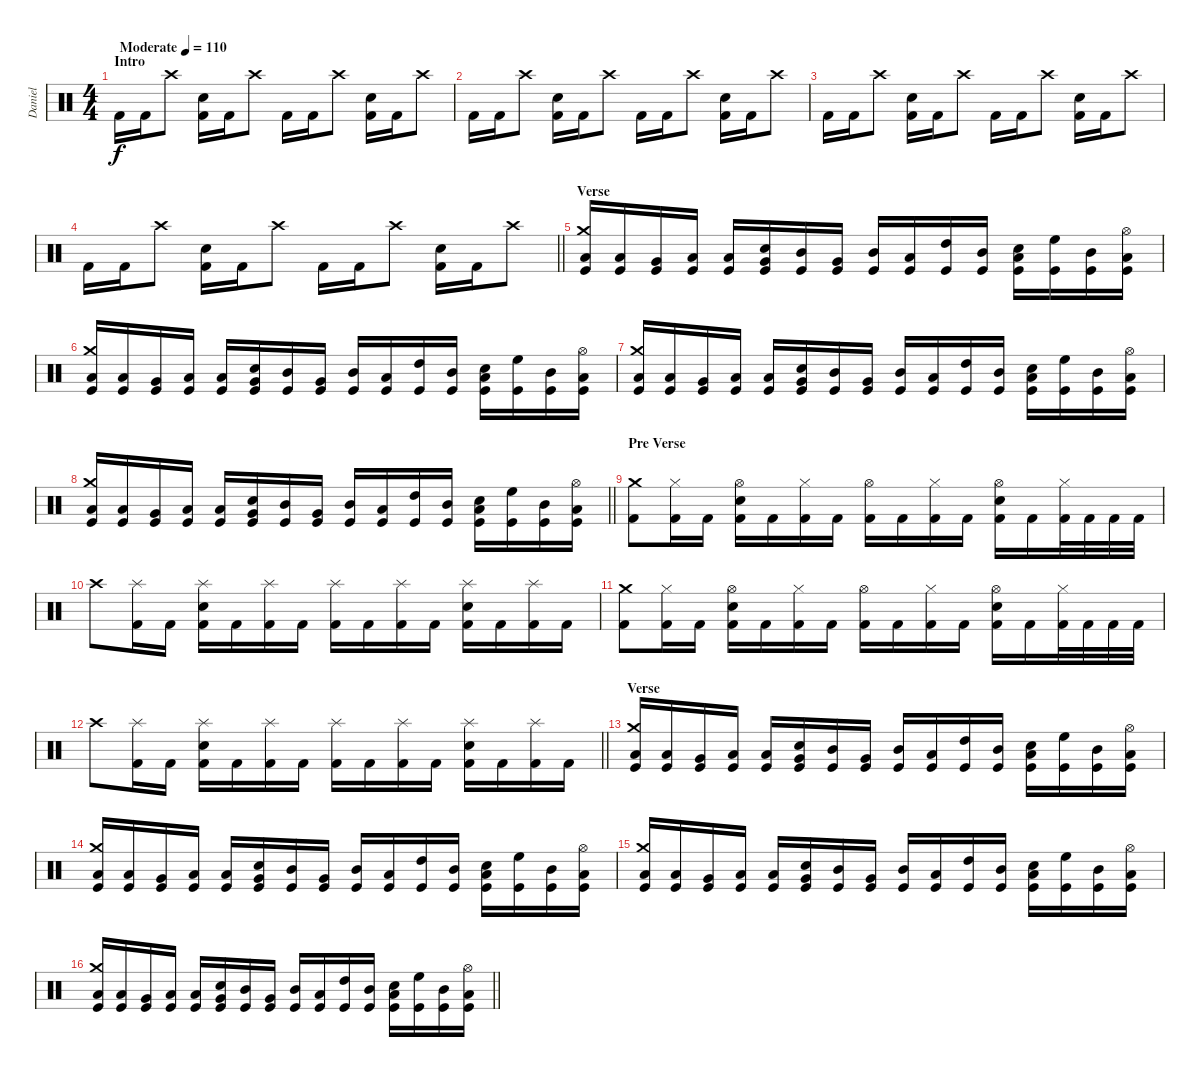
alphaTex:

\track ("Daniel" "Daniel") {instrument percussion}
\staff {score}
\articulation defaults
\ts (4 4)
\section ("" "Intro")
\tempo (110 "Moderate")
\clef neutral
\ks c "Kick (hit) 2".16{dy f} "Kick (hit) 2".16 "Crash high (hit)".8
("Snare (hit) 2" "Kick (hit) 2").16 "Kick (hit) 2".16 "Crash high (hit)".8 "Kick (hit) 2".16 "Kick (hit) 2".16 "Crash high (hit)".8 ("Snare (hit) 2" "Kick (hit) 2").16 "Kick (hit) 2".16 "Crash high (hit)".8 |
"Kick (hit) 2".16 "Kick (hit) 2".16 "Crash high (hit)".8 ("Snare (hit) 2" "Kick (hit) 2").16 "Kick (hit) 2".16 "Crash high (hit)".8 "Kick (hit) 2".16 "Kick (hit) 2".16 "Crash high (hit)".8 ("Snare (hit) 2" "Kick (hit) 2").16 "Kick (hit) 2".16 "Crash high (hit)".8 |
"Kick (hit) 2".16 "Kick (hit) 2".16 "Crash high (hit)".8 ("Snare (hit) 2" "Kick (hit) 2").16 "Kick (hit) 2".16 "Crash high (hit)".8 "Kick (hit) 2".16 "Kick (hit) 2".16 "Crash high (hit)".8 ("Snare (hit) 2" "Kick (hit) 2").16 "Kick (hit) 2".16 "Crash high (hit)".8 |
\barLineRight lightlight "Kick (hit) 2".16 "Kick (hit) 2".16 "Crash high (hit)".8
("Snare (hit) 2" "Kick (hit) 2").16 "Kick (hit) 2".16 "Crash high (hit)".8 "Kick (hit) 2".16 "Kick (hit) 2".16 "Crash high (hit)".8 ("Snare (hit) 2" "Kick (hit) 2").16 "Kick (hit) 2".16 "Crash high (hit)".8 |
\section ("" "Verse")
("Kick (hit)" "Crash medium (hit)" "Low Tom (hit)").16 ("Kick (hit)" "Low Tom (hit)").16 ("Kick (hit)" "Very Low Tom (hit)").16 ("Kick (hit)" "Low Floor Tom (hit)").16 ("Kick (hit)" "Low Tom (hit)").16 ("Kick (hit)" "Snare (hit) 2" "Very Low Tom (hit)").16 ("Kick (hit)" "Mid Tom (hit)").16 ("Kick (hit)" "Very Low Tom (hit)").16 ("Kick (hit)" "Mid Tom (hit)").16 ("Kick (hit)" "Low Tom (hit)").16 ("Kick (hit)" "High Tom (hit)").16 ("Kick (hit)" "Mid Tom (hit)").16 ("Kick (hit)" "Snare (hit) 2" "Low Tom (hit)").16 ("Kick (hit)" "High Floor Tom (hit)").16 ("Kick (hit)" "Mid Tom (hit)").16 ("Kick (hit)" "Hi-Hat (open)" "Low Tom (hit)").16 |
("Kick (hit)" "Crash medium (hit)" "Low Tom (hit)").16 ("Kick (hit)" "Low Tom (hit)").16 ("Kick (hit)" "Very Low Tom (hit)").16 ("Kick (hit)" "Low Floor Tom (hit)").16 ("Kick (hit)" "Low Tom (hit)").16 ("Kick (hit)" "Snare (hit) 2" "Very Low Tom (hit)").16 ("Kick (hit)" "Mid Tom (hit)").16 ("Kick (hit)" "Very Low Tom (hit)").16 ("Kick (hit)" "Mid Tom (hit)").16 ("Kick (hit)" "Low Tom (hit)").16 ("Kick (hit)" "High Tom (hit)").16 ("Kick (hit)" "Mid Tom (hit)").16 ("Kick (hit)" "Snare (hit) 2" "Low Tom (hit)").16 ("Kick (hit)" "High Floor Tom (hit)").16 ("Kick (hit)" "Mid Tom (hit)").16 ("Kick (hit)" "Hi-Hat (open)" "Low Tom (hit)").16 |
("Kick (hit)" "Crash medium (hit)" "Low Tom (hit)").16 ("Kick (hit)" "Low Tom (hit)").16 ("Kick (hit)" "Very Low Tom (hit)").16 ("Kick (hit)" "Low Floor Tom (hit)").16 ("Kick (hit)" "Low Tom (hit)").16 ("Kick (hit)" "Snare (hit) 2" "Very Low Tom (hit)").16 ("Kick (hit)" "Mid Tom (hit)").16 ("Kick (hit)" "Very Low Tom (hit)").16 ("Kick (hit)" "Mid Tom (hit)").16 ("Kick (hit)" "Low Tom (hit)").16 ("Kick (hit)" "High Tom (hit)").16 ("Kick (hit)" "Mid Tom (hit)").16 ("Kick (hit)" "Snare (hit) 2" "Low Tom (hit)").16 ("Kick (hit)" "High Floor Tom (hit)").16 ("Kick (hit)" "Mid Tom (hit)").16 ("Kick (hit)" "Hi-Hat (open)" "Low Tom (hit)").16 |
\barLineRight lightlight
("Kick (hit)" "Crash medium (hit)" "Low Tom (hit)").16 ("Kick (hit)" "Low Tom (hit)").16 ("Kick (hit)" "Very Low Tom (hit)").16 ("Kick (hit)" "Low Floor Tom (hit)").16 ("Kick (hit)" "Low Tom (hit)").16 ("Kick (hit)" "Snare (hit) 2" "Very Low Tom (hit)").16 ("Kick (hit)" "Mid Tom (hit)").16 ("Kick (hit)" "Very Low Tom (hit)").16 ("Kick (hit)" "Mid Tom (hit)").16 ("Kick (hit)" "Low Tom (hit)").16 ("Kick (hit)" "High Tom (hit)").16 ("Kick (hit)" "Mid Tom (hit)").16 ("Kick (hit)" "Snare (hit) 2" "Low Tom (hit)").16 ("Kick (hit)" "High Floor Tom (hit)").16 ("Kick (hit)" "Mid Tom (hit)").16 ("Kick (hit)" "Hi-Hat (open)" "Low Tom (hit)").16 |
\section ("" "Pre Verse")
("Crash medium (hit)" "Kick (hit) 2").8 ("Hi-Hat (closed)" "Kick (hit) 2").16 "Kick (hit) 2".16 ("Hi-Hat (open)" "Snare (hit) 2" "Kick (hit) 2").16 "Kick (hit) 2".16 ("Hi-Hat (closed)" "Kick (hit) 2").16 "Kick (hit) 2".16 ("Hi-Hat (open)" "Kick (hit) 2").16 "Kick (hit) 2".16 ("Hi-Hat (closed)" "Kick (hit) 2").16 "Kick (hit) 2".16 ("Hi-Hat (open)" "Snare (hit) 2" "Kick (hit) 2").16 "Kick (hit) 2".16 ("Hi-Hat (closed)" "Kick (hit) 2").32 "Kick (hit) 2".32 "Kick (hit) 2".32 "Kick (hit) 2".32 |
"Crash high (hit)".8 ("Splash (hit)" "Kick (hit) 2").16 "Kick (hit) 2".16 ("Splash (hit)" "Snare (hit) 2" "Kick (hit) 2").16 "Kick (hit) 2".16 ("Splash (hit)" "Kick (hit) 2").16 "Kick (hit) 2".16 ("Splash (hit)" "Kick (hit) 2").16 "Kick (hit) 2".16 ("Splash (hit)" "Kick (hit) 2").16 "Kick (hit) 2".16 ("Splash (hit)" "Snare (hit) 2" "Kick (hit) 2").16 "Kick (hit) 2".16 ("Splash (hit)" "Kick (hit) 2").16 "Kick (hit) 2".16 |
("Crash medium (hit)" "Kick (hit) 2").8 ("Hi-Hat (closed)" "Kick (hit) 2").16 "Kick (hit) 2".16 ("Hi-Hat (open)" "Snare (hit) 2" "Kick (hit) 2").16 "Kick (hit) 2".16 ("Hi-Hat (closed)" "Kick (hit) 2").16 "Kick (hit) 2".16 ("Hi-Hat (open)" "Kick (hit) 2").16 "Kick (hit) 2".16 ("Hi-Hat (closed)" "Kick (hit) 2").16 "Kick (hit) 2".16 ("Hi-Hat (open)" "Snare (hit) 2" "Kick (hit) 2").16 "Kick (hit) 2".16 ("Hi-Hat (closed)" "Kick (hit) 2").32 "Kick (hit) 2".32 "Kick (hit) 2".32 "Kick (hit) 2".32 |
\barLineRight lightlight "Crash high (hit)".8
("Splash (hit)" "Kick (hit) 2").16 "Kick (hit) 2".16 ("Splash (hit)" "Snare (hit) 2" "Kick (hit) 2").16 "Kick (hit) 2".16 ("Splash (hit)" "Kick (hit) 2").16 "Kick (hit) 2".16 ("Splash (hit)" "Kick (hit) 2").16 "Kick (hit) 2".16 ("Splash (hit)" "Kick (hit) 2").16 "Kick (hit) 2".16 ("Splash (hit)" "Snare (hit) 2" "Kick (hit) 2").16 "Kick (hit) 2".16 ("Splash (hit)" "Kick (hit) 2").16 "Kick (hit) 2".16 |
\section ("" "Verse")
("Kick (hit)" "Crash medium (hit)" "Low Tom (hit)").16 ("Kick (hit)" "Low Tom (hit)").16 ("Kick (hit)" "Very Low Tom (hit)").16 ("Kick (hit)" "Low Floor Tom (hit)").16 ("Kick (hit)" "Low Tom (hit)").16 ("Kick (hit)" "Snare (hit) 2" "Very Low Tom (hit)").16 ("Kick (hit)" "Mid Tom (hit)").16 ("Kick (hit)" "Very Low Tom (hit)").16 ("Kick (hit)" "Mid Tom (hit)").16 ("Kick (hit)" "Low Tom (hit)").16 ("Kick (hit)" "High Tom (hit)").16 ("Kick (hit)" "Mid Tom (hit)").16 ("Kick (hit)" "Snare (hit) 2" "Low Tom (hit)").16 ("Kick (hit)" "High Floor Tom (hit)").16 ("Kick (hit)" "Mid Tom (hit)").16 ("Kick (hit)" "Hi-Hat (open)" "Low Tom (hit)").16 |
("Kick (hit)" "Crash medium (hit)" "Low Tom (hit)").16 ("Kick (hit)" "Low Tom (hit)").16 ("Kick (hit)" "Very Low Tom (hit)").16 ("Kick (hit)" "Low Floor Tom (hit)").16 ("Kick (hit)" "Low Tom (hit)").16 ("Kick (hit)" "Snare (hit) 2" "Very Low Tom (hit)").16 ("Kick (hit)" "Mid Tom (hit)").16 ("Kick (hit)" "Very Low Tom (hit)").16 ("Kick (hit)" "Mid Tom (hit)").16 ("Kick (hit)" "Low Tom (hit)").16 ("Kick (hit)" "High Tom (hit)").16 ("Kick (hit)" "Mid Tom (hit)").16 ("Kick (hit)" "Snare (hit) 2" "Low Tom (hit)").16 ("Kick (hit)" "High Floor Tom (hit)").16 ("Kick (hit)" "Mid Tom (hit)").16 ("Kick (hit)" "Hi-Hat (open)" "Low Tom (hit)").16 |
("Kick (hit)" "Crash medium (hit)" "Low Tom (hit)").16 ("Kick (hit)" "Low Tom (hit)").16 ("Kick (hit)" "Very Low Tom (hit)").16 ("Kick (hit)" "Low Floor Tom (hit)").16 ("Kick (hit)" "Low Tom (hit)").16 ("Kick (hit)" "Snare (hit) 2" "Very Low Tom (hit)").16 ("Kick (hit)" "Mid Tom (hit)").16 ("Kick (hit)" "Very Low Tom (hit)").16 ("Kick (hit)" "Mid Tom (hit)").16 ("Kick (hit)" "Low Tom (hit)").16 ("Kick (hit)" "High Tom (hit)").16 ("Kick (hit)" "Mid Tom (hit)").16 ("Kick (hit)" "Snare (hit) 2" "Low Tom (hit)").16 ("Kick (hit)" "High Floor Tom (hit)").16 ("Kick (hit)" "Mid Tom (hit)").16 ("Kick (hit)" "Hi-Hat (open)" "Low Tom (hit)").16 |
\barLineRight lightlight
("Kick (hit)" "Crash medium (hit)" "Low Tom (hit)").16 ("Kick (hit)" "Low Tom (hit)").16 ("Kick (hit)" "Very Low Tom (hit)").16 ("Kick (hit)" "Low Floor Tom (hit)").16 ("Kick (hit)" "Low Tom (hit)").16 ("Kick (hit)" "Snare (hit) 2" "Very Low Tom (hit)").16 ("Kick (hit)" "Mid Tom (hit)").16 ("Kick (hit)" "Very Low Tom (hit)").16 ("Kick (hit)" "Mid Tom (hit)").16 ("Kick (hit)" "Low Tom (hit)").16 ("Kick (hit)" "High Tom (hit)").16 ("Kick (hit)" "Mid Tom (hit)").16 ("Kick (hit)" "Snare (hit) 2" "Low Tom (hit)").16 ("Kick (hit)" "High Floor Tom (hit)").16 ("Kick (hit)" "Mid Tom (hit)").16 ("Kick (hit)" "Hi-Hat (open)" "Low Tom (hit)").16
